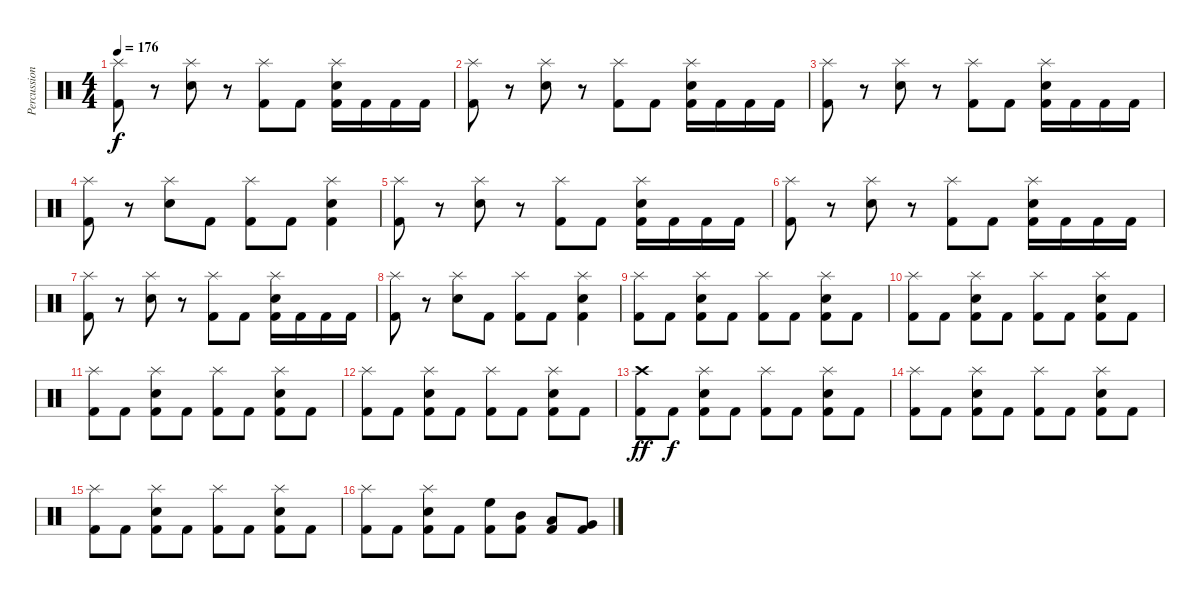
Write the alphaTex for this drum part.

\track ("Percussion" "Percussion") {instrument percussion}
\staff {score}
\articulation defaults
\ts (4 4)
\tempo 176
\clef neutral
\ks c
("Splash (hit)" "Kick (hit) 2").8{dy f} r.8 ("Splash (hit)" "Snare (hit) 2").8 r.8 ("Splash (hit)" "Kick (hit) 2").8 "Kick (hit) 2".8 ("Splash (hit)" "Snare (hit) 2" "Kick (hit) 2").16 "Kick (hit) 2".16 "Kick (hit) 2".16 "Kick (hit) 2".16 |
("Splash (hit)" "Kick (hit) 2").8 r.8 ("Splash (hit)" "Snare (hit) 2").8 r.8 ("Splash (hit)" "Kick (hit) 2").8 "Kick (hit) 2".8 ("Splash (hit)" "Snare (hit) 2" "Kick (hit) 2").16 "Kick (hit) 2".16 "Kick (hit) 2".16 "Kick (hit) 2".16 |
("Splash (hit)" "Kick (hit) 2").8 r.8 ("Splash (hit)" "Snare (hit) 2").8 r.8 ("Splash (hit)" "Kick (hit) 2").8 "Kick (hit) 2".8 ("Splash (hit)" "Snare (hit) 2" "Kick (hit) 2").16 "Kick (hit) 2".16 "Kick (hit) 2".16 "Kick (hit) 2".16 |
("Splash (hit)" "Kick (hit) 2").8 r.8 ("Splash (hit)" "Snare (hit) 2").8 "Kick (hit) 2".8 ("Splash (hit)" "Kick (hit) 2").8 "Kick (hit) 2".8 ("Splash (hit)" "Snare (hit) 2" "Kick (hit) 2").4 |
("Splash (hit)" "Kick (hit) 2").8 r.8 ("Splash (hit)" "Snare (hit) 2").8 r.8 ("Splash (hit)" "Kick (hit) 2").8 "Kick (hit) 2".8 ("Splash (hit)" "Snare (hit) 2" "Kick (hit) 2").16 "Kick (hit) 2".16 "Kick (hit) 2".16 "Kick (hit) 2".16 |
("Splash (hit)" "Kick (hit) 2").8 r.8 ("Splash (hit)" "Snare (hit) 2").8 r.8 ("Splash (hit)" "Kick (hit) 2").8 "Kick (hit) 2".8 ("Splash (hit)" "Snare (hit) 2" "Kick (hit) 2").16 "Kick (hit) 2".16 "Kick (hit) 2".16 "Kick (hit) 2".16 |
("Splash (hit)" "Kick (hit) 2").8 r.8 ("Splash (hit)" "Snare (hit) 2").8 r.8 ("Splash (hit)" "Kick (hit) 2").8 "Kick (hit) 2".8 ("Splash (hit)" "Snare (hit) 2" "Kick (hit) 2").16 "Kick (hit) 2".16 "Kick (hit) 2".16 "Kick (hit) 2".16 |
("Splash (hit)" "Kick (hit) 2").8 r.8 ("Splash (hit)" "Snare (hit) 2").8 "Kick (hit) 2".8 ("Splash (hit)" "Kick (hit) 2").8 "Kick (hit) 2".8 ("Splash (hit)" "Snare (hit) 2" "Kick (hit) 2").4 |
("Splash (hit)" "Kick (hit) 2").8 "Kick (hit) 2".8 ("Splash (hit)" "Snare (hit) 2" "Kick (hit) 2").8 "Kick (hit) 2".8 ("Splash (hit)" "Kick (hit) 2").8 "Kick (hit) 2".8 ("Splash (hit)" "Snare (hit) 2" "Kick (hit) 2").8 "Kick (hit) 2".8 |
("Splash (hit)" "Kick (hit) 2").8 "Kick (hit) 2".8 ("Splash (hit)" "Snare (hit) 2" "Kick (hit) 2").8 "Kick (hit) 2".8 ("Splash (hit)" "Kick (hit) 2").8 "Kick (hit) 2".8 ("Splash (hit)" "Snare (hit) 2" "Kick (hit) 2").8 "Kick (hit) 2".8 |
("Splash (hit)" "Kick (hit) 2").8 "Kick (hit) 2".8 ("Splash (hit)" "Snare (hit) 2" "Kick (hit) 2").8 "Kick (hit) 2".8 ("Splash (hit)" "Kick (hit) 2").8 "Kick (hit) 2".8 ("Splash (hit)" "Snare (hit) 2" "Kick (hit) 2").8 "Kick (hit) 2".8 |
("Splash (hit)" "Kick (hit) 2").8 "Kick (hit) 2".8 ("Splash (hit)" "Snare (hit) 2" "Kick (hit) 2").8 "Kick (hit) 2".8 ("Splash (hit)" "Kick (hit) 2").8 "Kick (hit) 2".8 ("Splash (hit)" "Snare (hit) 2" "Kick (hit) 2").8 "Kick (hit) 2".8 |
("Crash high (hit)" "Kick (hit) 2").8{dy ff} "Kick (hit) 2".8{dy f} ("Splash (hit)" "Snare (hit) 2" "Kick (hit) 2").8 "Kick (hit) 2".8 ("Splash (hit)" "Kick (hit) 2").8 "Kick (hit) 2".8 ("Splash (hit)" "Snare (hit) 2" "Kick (hit) 2").8 "Kick (hit) 2".8 |
("Splash (hit)" "Kick (hit) 2").8 "Kick (hit) 2".8 ("Splash (hit)" "Snare (hit) 2" "Kick (hit) 2").8 "Kick (hit) 2".8 ("Splash (hit)" "Kick (hit) 2").8 "Kick (hit) 2".8 ("Splash (hit)" "Snare (hit) 2" "Kick (hit) 2").8 "Kick (hit) 2".8 |
("Splash (hit)" "Kick (hit) 2").8 "Kick (hit) 2".8 ("Splash (hit)" "Snare (hit) 2" "Kick (hit) 2").8 "Kick (hit) 2".8 ("Splash (hit)" "Kick (hit) 2").8 "Kick (hit) 2".8 ("Splash (hit)" "Snare (hit) 2" "Kick (hit) 2").8 "Kick (hit) 2".8 |
("Splash (hit)" "Kick (hit) 2").8 "Kick (hit) 2".8 ("Splash (hit)" "Snare (hit) 2" "Kick (hit) 2").8 "Kick (hit) 2".8 ("High Floor Tom (hit)" "Kick (hit) 2").8 ("Mid Tom (hit)" "Kick (hit) 2").8 ("Low Tom (hit)" "Kick (hit) 2").8 ("Very Low Tom (hit)" "Kick (hit) 2").8
